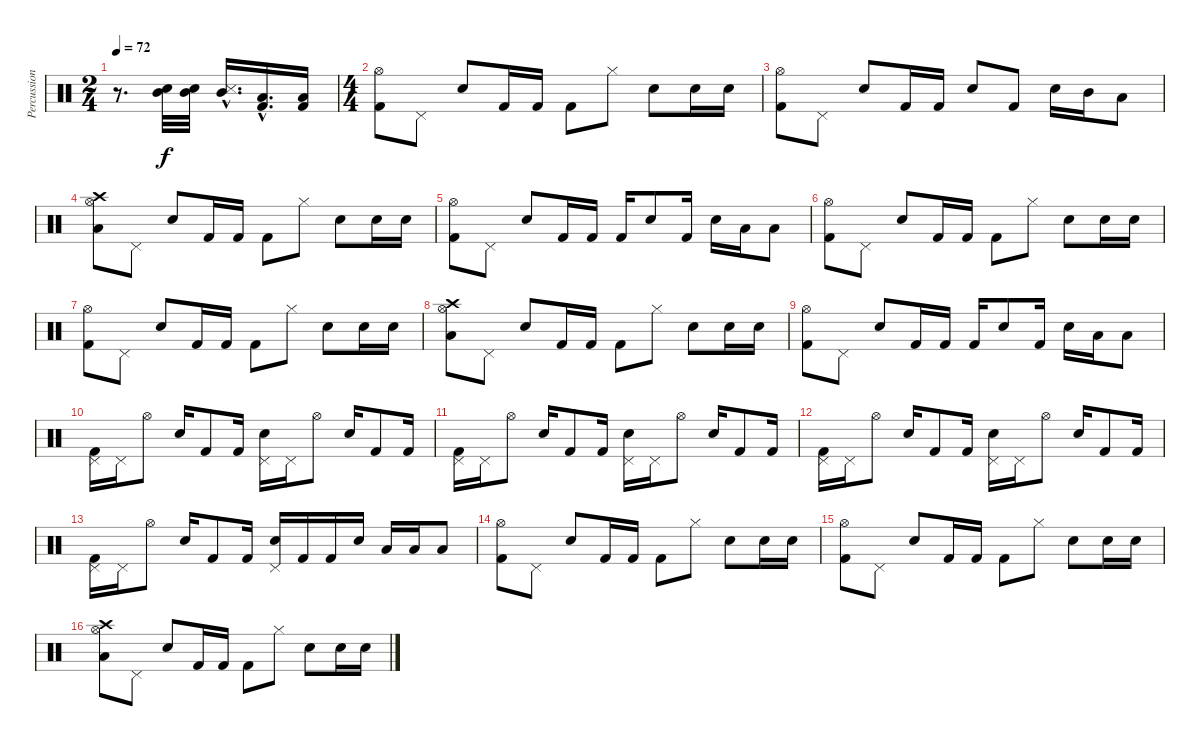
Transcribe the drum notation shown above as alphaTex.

\track ("Percussion" "Percussion") {instrument percussion}
\staff {score}
\articulation defaults
\ts (2 4)
\tempo 72
\clef neutral
\ks c
r.8{d dy f} ("Snare (hit) 2" "Mid Tom (hit)").32 ("Snare (hit) 2" "Mid Tom (hit)").32 ("Snare (side stick) 3"{hac} "Mid Tom (hit)"{hac}).16{d} ("Low Tom (hit)"{hac} "Kick (hit) 2"{hac}).16{d} ("Low Floor Tom (hit)" "Kick (hit) 2").16 |
\ts (4 4)
("Hi-Hat (open)" "Kick (hit) 2").8 "Pedal Hi-Hat (hit)".8 "Snare (hit) 2".8 "Kick (hit) 2".16 "Kick (hit) 2".16 "Kick (hit) 2".8 "Hi-Hat (closed)".8 "Snare (hit) 2".8 "Snare (hit) 2".16 "Snare (hit) 2".16 |
("Hi-Hat (open)" "Kick (hit) 2").8 "Pedal Hi-Hat (hit)".8 "Snare (hit) 2".8 "Kick (hit) 2".16 "Kick (hit) 2".16 "Snare (hit) 2".8 "Kick (hit) 2".8 "Snare (hit) 2".16 "Mid Tom (hit)".16 "Low Floor Tom (hit)".8 |
("Hi-Hat (open)" "Low Floor Tom (hit)" "Crash high (hit)").8 "Pedal Hi-Hat (hit)".8 "Snare (hit) 2".8 "Kick (hit) 2".16 "Kick (hit) 2".16 "Kick (hit) 2".8 "Hi-Hat (closed)".8 "Snare (hit) 2".8 "Snare (hit) 2".16 "Snare (hit) 2".16 |
("Hi-Hat (open)" "Kick (hit) 2").8 "Pedal Hi-Hat (hit)".8 "Snare (hit) 2".8 "Kick (hit) 2".16 "Kick (hit) 2".16 "Kick (hit) 2".16 "Snare (hit) 2".8 "Kick (hit) 2".16 "Snare (hit) 2".16 "Low Floor Tom (hit)".16 "Low Floor Tom (hit)".8 |
("Hi-Hat (open)" "Kick (hit) 2").8 "Pedal Hi-Hat (hit)".8 "Snare (hit) 2".8 "Kick (hit) 2".16 "Kick (hit) 2".16 "Kick (hit) 2".8 "Hi-Hat (closed)".8 "Snare (hit) 2".8 "Snare (hit) 2".16 "Snare (hit) 2".16 |
("Hi-Hat (open)" "Kick (hit) 2").8 "Pedal Hi-Hat (hit)".8 "Snare (hit) 2".8 "Kick (hit) 2".16 "Kick (hit) 2".16 "Kick (hit) 2".8 "Hi-Hat (closed)".8 "Snare (hit) 2".8 "Snare (hit) 2".16 "Snare (hit) 2".16 |
("Hi-Hat (open)" "Low Floor Tom (hit)" "Crash high (hit)").8 "Pedal Hi-Hat (hit)".8 "Snare (hit) 2".8 "Kick (hit) 2".16 "Kick (hit) 2".16 "Kick (hit) 2".8 "Hi-Hat (closed)".8 "Snare (hit) 2".8 "Snare (hit) 2".16 "Snare (hit) 2".16 |
("Hi-Hat (open)" "Kick (hit) 2").8 "Pedal Hi-Hat (hit)".8 "Snare (hit) 2".8 "Kick (hit) 2".16 "Kick (hit) 2".16 "Kick (hit) 2".16 "Snare (hit) 2".8 "Kick (hit) 2".16 "Snare (hit) 2".16 "Low Floor Tom (hit)".16 "Low Floor Tom (hit)".8 |
("Kick (hit) 2" "Pedal Hi-Hat (hit)").16 "Pedal Hi-Hat (hit)".16 "Hi-Hat (open)".8 "Snare (hit) 2".16 "Kick (hit) 2".8 "Kick (hit) 2".16 ("Pedal Hi-Hat (hit)" "Snare (hit) 2").16 "Pedal Hi-Hat (hit)".16 "Hi-Hat (open)".8 "Snare (hit) 2".16 "Kick (hit) 2".8 "Kick (hit) 2".16 |
("Kick (hit) 2" "Pedal Hi-Hat (hit)").16 "Pedal Hi-Hat (hit)".16 "Hi-Hat (open)".8 "Snare (hit) 2".16 "Kick (hit) 2".8 "Kick (hit) 2".16 ("Pedal Hi-Hat (hit)" "Snare (hit) 2").16 "Pedal Hi-Hat (hit)".16 "Hi-Hat (open)".8 "Snare (hit) 2".16 "Kick (hit) 2".8 "Kick (hit) 2".16 |
("Kick (hit) 2" "Pedal Hi-Hat (hit)").16 "Pedal Hi-Hat (hit)".16 "Hi-Hat (open)".8 "Snare (hit) 2".16 "Kick (hit) 2".8 "Kick (hit) 2".16 ("Pedal Hi-Hat (hit)" "Snare (hit) 2").16 "Pedal Hi-Hat (hit)".16 "Hi-Hat (open)".8 "Snare (hit) 2".16 "Kick (hit) 2".8 "Kick (hit) 2".16 |
("Kick (hit) 2" "Pedal Hi-Hat (hit)").16 "Pedal Hi-Hat (hit)".16 "Hi-Hat (open)".8 "Snare (hit) 2".16 "Kick (hit) 2".8 "Kick (hit) 2".16 ("Pedal Hi-Hat (hit)" "Snare (hit) 2").16 "Kick (hit) 2".16 "Kick (hit) 2".16 "Snare (hit) 2".16 "Low Tom (hit)".16 "Low Floor Tom (hit)".16 "Low Floor Tom (hit)".8 |
("Hi-Hat (open)" "Kick (hit) 2").8 "Pedal Hi-Hat (hit)".8 "Snare (hit) 2".8 "Kick (hit) 2".16 "Kick (hit) 2".16 "Kick (hit) 2".8 "Hi-Hat (closed)".8 "Snare (hit) 2".8 "Snare (hit) 2".16 "Snare (hit) 2".16 |
("Hi-Hat (open)" "Kick (hit) 2").8 "Pedal Hi-Hat (hit)".8 "Snare (hit) 2".8 "Kick (hit) 2".16 "Kick (hit) 2".16 "Kick (hit) 2".8 "Hi-Hat (closed)".8 "Snare (hit) 2".8 "Snare (hit) 2".16 "Snare (hit) 2".16 |
("Hi-Hat (open)" "Low Floor Tom (hit)" "Crash high (hit)").8 "Pedal Hi-Hat (hit)".8 "Snare (hit) 2".8 "Kick (hit) 2".16 "Kick (hit) 2".16 "Kick (hit) 2".8 "Hi-Hat (closed)".8 "Snare (hit) 2".8 "Snare (hit) 2".16 "Snare (hit) 2".16
